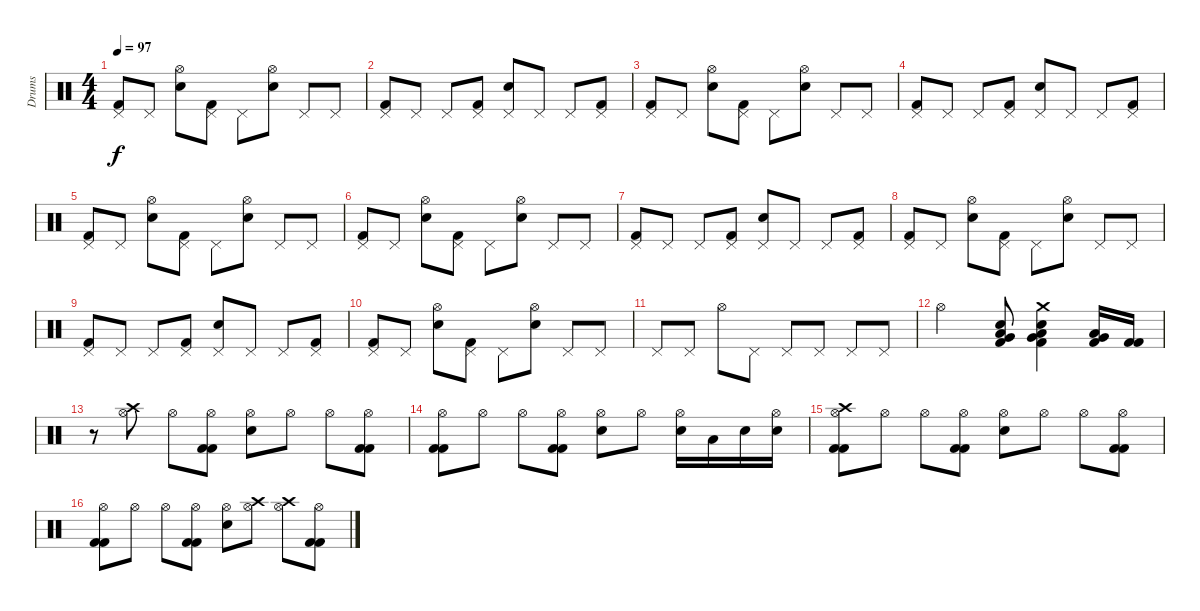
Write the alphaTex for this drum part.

\track ("Drums" "Drums") {instrument percussion}
\staff {score}
\articulation defaults
\ts (4 4)
\tempo 97
\clef neutral
\ks c
("Pedal Hi-Hat (hit)" "Kick (hit) 2").8{dy f} "Pedal Hi-Hat (hit)".8 ("Hi-Hat (open)" "Electric Snare (hit)").8 ("Pedal Hi-Hat (hit)" "Kick (hit) 2").8 "Pedal Hi-Hat (hit)".8 ("Hi-Hat (open)" "Electric Snare (hit)").8 "Pedal Hi-Hat (hit)".8 "Pedal Hi-Hat (hit)".8 |
("Pedal Hi-Hat (hit)" "Kick (hit) 2").8 "Pedal Hi-Hat (hit)".8 "Pedal Hi-Hat (hit)".8 ("Pedal Hi-Hat (hit)" "Kick (hit) 2").8 ("Pedal Hi-Hat (hit)" "Electric Snare (hit)").8 "Pedal Hi-Hat (hit)".8 "Pedal Hi-Hat (hit)".8 ("Pedal Hi-Hat (hit)" "Kick (hit) 2").8 |
("Pedal Hi-Hat (hit)" "Kick (hit) 2").8 "Pedal Hi-Hat (hit)".8 ("Hi-Hat (open)" "Electric Snare (hit)").8 ("Pedal Hi-Hat (hit)" "Kick (hit) 2").8 "Pedal Hi-Hat (hit)".8 ("Hi-Hat (open)" "Electric Snare (hit)").8 "Pedal Hi-Hat (hit)".8 "Pedal Hi-Hat (hit)".8 |
("Pedal Hi-Hat (hit)" "Kick (hit) 2").8 "Pedal Hi-Hat (hit)".8 "Pedal Hi-Hat (hit)".8 ("Pedal Hi-Hat (hit)" "Kick (hit) 2").8 ("Pedal Hi-Hat (hit)" "Electric Snare (hit)").8 "Pedal Hi-Hat (hit)".8 "Pedal Hi-Hat (hit)".8 ("Pedal Hi-Hat (hit)" "Kick (hit) 2").8 |
("Pedal Hi-Hat (hit)" "Kick (hit) 2").8 "Pedal Hi-Hat (hit)".8 ("Hi-Hat (open)" "Electric Snare (hit)").8 ("Pedal Hi-Hat (hit)" "Kick (hit) 2").8 "Pedal Hi-Hat (hit)".8 ("Hi-Hat (open)" "Electric Snare (hit)").8 "Pedal Hi-Hat (hit)".8 "Pedal Hi-Hat (hit)".8 |
("Pedal Hi-Hat (hit)" "Kick (hit) 2").8 "Pedal Hi-Hat (hit)".8 ("Hi-Hat (open)" "Electric Snare (hit)").8 ("Pedal Hi-Hat (hit)" "Kick (hit) 2").8 "Pedal Hi-Hat (hit)".8 ("Hi-Hat (open)" "Electric Snare (hit)").8 "Pedal Hi-Hat (hit)".8 "Pedal Hi-Hat (hit)".8 |
("Pedal Hi-Hat (hit)" "Kick (hit) 2").8 "Pedal Hi-Hat (hit)".8 "Pedal Hi-Hat (hit)".8 ("Pedal Hi-Hat (hit)" "Kick (hit) 2").8 ("Pedal Hi-Hat (hit)" "Electric Snare (hit)").8 "Pedal Hi-Hat (hit)".8 "Pedal Hi-Hat (hit)".8 ("Pedal Hi-Hat (hit)" "Kick (hit) 2").8 |
("Pedal Hi-Hat (hit)" "Kick (hit) 2").8 "Pedal Hi-Hat (hit)".8 ("Hi-Hat (open)" "Electric Snare (hit)").8 ("Pedal Hi-Hat (hit)" "Kick (hit) 2").8 "Pedal Hi-Hat (hit)".8 ("Hi-Hat (open)" "Electric Snare (hit)").8 "Pedal Hi-Hat (hit)".8 "Pedal Hi-Hat (hit)".8 |
("Pedal Hi-Hat (hit)" "Kick (hit) 2").8 "Pedal Hi-Hat (hit)".8 "Pedal Hi-Hat (hit)".8 ("Pedal Hi-Hat (hit)" "Kick (hit) 2").8 ("Pedal Hi-Hat (hit)" "Electric Snare (hit)").8 "Pedal Hi-Hat (hit)".8 "Pedal Hi-Hat (hit)".8 ("Pedal Hi-Hat (hit)" "Kick (hit) 2").8 |
("Pedal Hi-Hat (hit)" "Kick (hit) 2").8 "Pedal Hi-Hat (hit)".8 ("Hi-Hat (open)" "Electric Snare (hit)").8 ("Pedal Hi-Hat (hit)" "Kick (hit) 2").8 "Pedal Hi-Hat (hit)".8 ("Hi-Hat (open)" "Electric Snare (hit)").8 "Pedal Hi-Hat (hit)".8 "Pedal Hi-Hat (hit)".8 |
"Pedal Hi-Hat (hit)".8 "Pedal Hi-Hat (hit)".8 "Hi-Hat (open)".8 "Pedal Hi-Hat (hit)".8 "Pedal Hi-Hat (hit)".8 "Pedal Hi-Hat (hit)".8 "Pedal Hi-Hat (hit)".8 "Pedal Hi-Hat (hit)".8 |
"Hi-Hat (open)".2 ("Low Floor Tom (hit)" "Very Low Tom (hit)" "Snare (hit) 2" "Kick (hit) 2").8 ("Crash medium (hit)" "Low Floor Tom (hit)" "Very Low Tom (hit)" "Electric Snare (hit)" "Kick (hit) 2").4 ("Low Floor Tom (hit)" "Very Low Tom (hit)" "Kick (hit) 2").16 ("Kick (hit) 2" "Kick (hit) 2").16 |
r.8 ("Crash high (hit)" "Hi-Hat (open)").8 "Hi-Hat (open)".8 ("Hi-Hat (open)" "Kick (hit) 2" "Kick (hit) 2").8 ("Hi-Hat (open)" "Electric Snare (hit)").8 "Hi-Hat (open)".8 "Hi-Hat (open)".8 ("Hi-Hat (open)" "Kick (hit) 2" "Kick (hit) 2").8 |
("Hi-Hat (open)" "Kick (hit) 2" "Kick (hit) 2").8 "Hi-Hat (open)".8 "Hi-Hat (open)".8 ("Hi-Hat (open)" "Kick (hit) 2" "Kick (hit) 2").8 ("Hi-Hat (open)" "Electric Snare (hit)").8 "Hi-Hat (open)".8 ("Hi-Hat (open)" "Electric Snare (hit)").16 "Low Tom (hit)".16 "Electric Snare (hit)".16 ("Hi-Hat (open)" "Electric Snare (hit)").16 |
("Hi-Hat (open)" "Crash high (hit)" "Kick (hit) 2" "Kick (hit) 2").8 "Hi-Hat (open)".8 "Hi-Hat (open)".8 ("Hi-Hat (open)" "Kick (hit) 2" "Kick (hit) 2").8 ("Hi-Hat (open)" "Electric Snare (hit)").8 "Hi-Hat (open)".8 "Hi-Hat (open)".8 ("Hi-Hat (open)" "Kick (hit) 2" "Kick (hit) 2").8 |
("Hi-Hat (open)" "Kick (hit) 2" "Kick (hit) 2").8 "Hi-Hat (open)".8 "Hi-Hat (open)".8 ("Hi-Hat (open)" "Kick (hit) 2" "Kick (hit) 2").8 ("Hi-Hat (open)" "Electric Snare (hit)").8 ("Hi-Hat (open)" "Crash high (hit)").8 ("Hi-Hat (open)" "Crash high (hit)").8 ("Hi-Hat (open)" "Kick (hit) 2" "Kick (hit) 2").8
